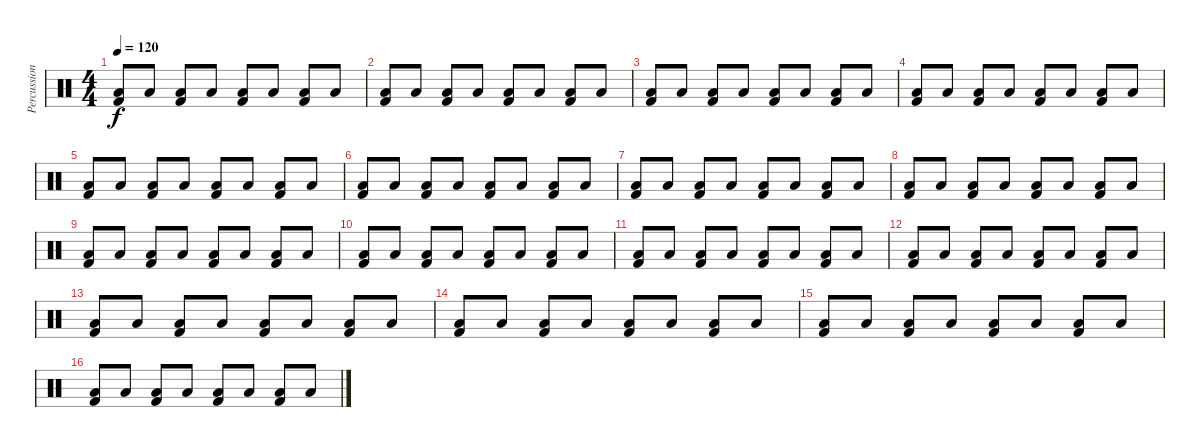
\track ("Percussion" "Percussion") {instrument percussion}
\staff {score}
\articulation defaults
\ts (4 4)
\tempo 120
\clef neutral
\ks c
("Low Floor Tom (hit)" "Kick (hit) 2").8{dy f} "Low Floor Tom (hit)".8 ("Low Floor Tom (hit)" "Kick (hit) 2").8 "Low Floor Tom (hit)".8 ("Low Floor Tom (hit)" "Kick (hit) 2").8 "Low Floor Tom (hit)".8 ("Low Floor Tom (hit)" "Kick (hit) 2").8 "Low Floor Tom (hit)".8 |
("Low Floor Tom (hit)" "Kick (hit) 2").8 "Low Floor Tom (hit)".8 ("Low Floor Tom (hit)" "Kick (hit) 2").8 "Low Floor Tom (hit)".8 ("Low Floor Tom (hit)" "Kick (hit) 2").8 "Low Floor Tom (hit)".8 ("Low Floor Tom (hit)" "Kick (hit) 2").8 "Low Floor Tom (hit)".8 |
("Low Floor Tom (hit)" "Kick (hit) 2").8 "Low Floor Tom (hit)".8 ("Low Floor Tom (hit)" "Kick (hit) 2").8 "Low Floor Tom (hit)".8 ("Low Floor Tom (hit)" "Kick (hit) 2").8 "Low Floor Tom (hit)".8 ("Low Floor Tom (hit)" "Kick (hit) 2").8 "Low Floor Tom (hit)".8 |
("Low Floor Tom (hit)" "Kick (hit) 2").8 "Low Floor Tom (hit)".8 ("Low Floor Tom (hit)" "Kick (hit) 2").8 "Low Floor Tom (hit)".8 ("Low Floor Tom (hit)" "Kick (hit) 2").8 "Low Floor Tom (hit)".8 ("Low Floor Tom (hit)" "Kick (hit) 2").8 "Low Floor Tom (hit)".8 |
("Low Floor Tom (hit)" "Kick (hit) 2").8 "Low Floor Tom (hit)".8 ("Low Floor Tom (hit)" "Kick (hit) 2").8 "Low Floor Tom (hit)".8 ("Low Floor Tom (hit)" "Kick (hit) 2").8 "Low Floor Tom (hit)".8 ("Low Floor Tom (hit)" "Kick (hit) 2").8 "Low Floor Tom (hit)".8 |
("Low Floor Tom (hit)" "Kick (hit) 2").8 "Low Floor Tom (hit)".8 ("Low Floor Tom (hit)" "Kick (hit) 2").8 "Low Floor Tom (hit)".8 ("Low Floor Tom (hit)" "Kick (hit) 2").8 "Low Floor Tom (hit)".8 ("Low Floor Tom (hit)" "Kick (hit) 2").8 "Low Floor Tom (hit)".8 |
("Low Floor Tom (hit)" "Kick (hit) 2").8 "Low Floor Tom (hit)".8 ("Low Floor Tom (hit)" "Kick (hit) 2").8 "Low Floor Tom (hit)".8 ("Low Floor Tom (hit)" "Kick (hit) 2").8 "Low Floor Tom (hit)".8 ("Low Floor Tom (hit)" "Kick (hit) 2").8 "Low Floor Tom (hit)".8 |
("Low Floor Tom (hit)" "Kick (hit) 2").8 "Low Floor Tom (hit)".8 ("Low Floor Tom (hit)" "Kick (hit) 2").8 "Low Floor Tom (hit)".8 ("Low Floor Tom (hit)" "Kick (hit) 2").8 "Low Floor Tom (hit)".8 ("Low Floor Tom (hit)" "Kick (hit) 2").8 "Low Floor Tom (hit)".8 |
("Low Floor Tom (hit)" "Kick (hit) 2").8 "Low Floor Tom (hit)".8 ("Low Floor Tom (hit)" "Kick (hit) 2").8 "Low Floor Tom (hit)".8 ("Low Floor Tom (hit)" "Kick (hit) 2").8 "Low Floor Tom (hit)".8 ("Low Floor Tom (hit)" "Kick (hit) 2").8 "Low Floor Tom (hit)".8 |
("Low Floor Tom (hit)" "Kick (hit) 2").8 "Low Floor Tom (hit)".8 ("Low Floor Tom (hit)" "Kick (hit) 2").8 "Low Floor Tom (hit)".8 ("Low Floor Tom (hit)" "Kick (hit) 2").8 "Low Floor Tom (hit)".8 ("Low Floor Tom (hit)" "Kick (hit) 2").8 "Low Floor Tom (hit)".8 |
("Low Floor Tom (hit)" "Kick (hit) 2").8 "Low Floor Tom (hit)".8 ("Low Floor Tom (hit)" "Kick (hit) 2").8 "Low Floor Tom (hit)".8 ("Low Floor Tom (hit)" "Kick (hit) 2").8 "Low Floor Tom (hit)".8 ("Low Floor Tom (hit)" "Kick (hit) 2").8 "Low Floor Tom (hit)".8 |
("Low Floor Tom (hit)" "Kick (hit) 2").8 "Low Floor Tom (hit)".8 ("Low Floor Tom (hit)" "Kick (hit) 2").8 "Low Floor Tom (hit)".8 ("Low Floor Tom (hit)" "Kick (hit) 2").8 "Low Floor Tom (hit)".8 ("Low Floor Tom (hit)" "Kick (hit) 2").8 "Low Floor Tom (hit)".8 |
("Low Floor Tom (hit)" "Kick (hit) 2").8 "Low Floor Tom (hit)".8 ("Low Floor Tom (hit)" "Kick (hit) 2").8 "Low Floor Tom (hit)".8 ("Low Floor Tom (hit)" "Kick (hit) 2").8 "Low Floor Tom (hit)".8 ("Low Floor Tom (hit)" "Kick (hit) 2").8 "Low Floor Tom (hit)".8 |
("Low Floor Tom (hit)" "Kick (hit) 2").8 "Low Floor Tom (hit)".8 ("Low Floor Tom (hit)" "Kick (hit) 2").8 "Low Floor Tom (hit)".8 ("Low Floor Tom (hit)" "Kick (hit) 2").8 "Low Floor Tom (hit)".8 ("Low Floor Tom (hit)" "Kick (hit) 2").8 "Low Floor Tom (hit)".8 |
("Low Floor Tom (hit)" "Kick (hit) 2").8 "Low Floor Tom (hit)".8 ("Low Floor Tom (hit)" "Kick (hit) 2").8 "Low Floor Tom (hit)".8 ("Low Floor Tom (hit)" "Kick (hit) 2").8 "Low Floor Tom (hit)".8 ("Low Floor Tom (hit)" "Kick (hit) 2").8 "Low Floor Tom (hit)".8 |
("Low Floor Tom (hit)" "Kick (hit) 2").8 "Low Floor Tom (hit)".8 ("Low Floor Tom (hit)" "Kick (hit) 2").8 "Low Floor Tom (hit)".8 ("Low Floor Tom (hit)" "Kick (hit) 2").8 "Low Floor Tom (hit)".8 ("Low Floor Tom (hit)" "Kick (hit) 2").8 "Low Floor Tom (hit)".8
